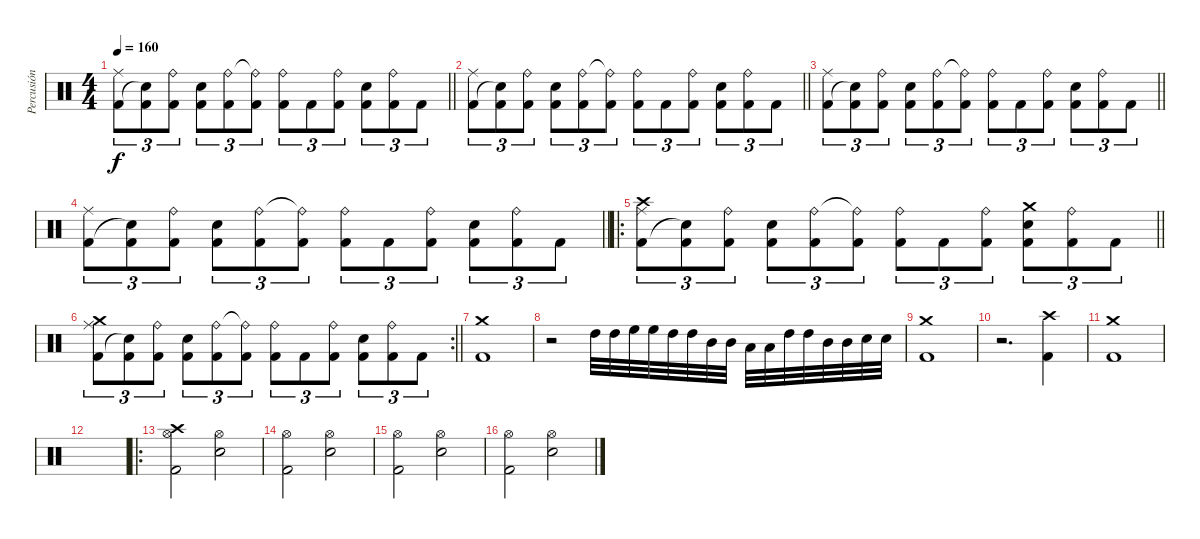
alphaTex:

\track ("Percusión" "Percusión") {instrument percussion}
\staff {score}
\articulation defaults
\ts (4 4)
\tempo 160
\clef neutral
\barLineRight lightlight
\ks c
("Ride (middle)" "Kick (hit) 2").8{tu (3 2) dy f} ("Kick (hit) 2" "Snare (hit)"{t}).8{tu (3 2)} ("Ride (bell)" "Kick (hit) 2").8{tu (3 2)} ("Snare (hit) 2" "Kick (hit) 2").8{tu (3 2)} ("Ride (bell)" "Kick (hit) 2").8{tu (3 2)} ("Ride (bell)"{t} "Kick (hit) 2").8{tu (3 2)} ("Kick (hit) 2" "Ride (bell)").8{tu (3 2)} "Kick (hit) 2".8{tu (3 2)} ("Ride (bell)" "Kick (hit) 2").8{tu (3 2)} ("Kick (hit) 2" "Snare (hit) 2").8{tu (3 2)} ("Kick (hit) 2" "Ride (bell)").8{tu (3 2)} "Kick (hit) 2".8{tu (3 2)} |
\barLineRight lightlight
("Ride (middle)" "Kick (hit) 2").8{tu (3 2)} ("Kick (hit) 2" "Snare (hit)"{t}).8{tu (3 2)} ("Ride (bell)" "Kick (hit) 2").8{tu (3 2)} ("Snare (hit) 2" "Kick (hit) 2").8{tu (3 2)} ("Ride (bell)" "Kick (hit) 2").8{tu (3 2)} ("Ride (bell)"{t} "Kick (hit) 2").8{tu (3 2)} ("Kick (hit) 2" "Ride (bell)").8{tu (3 2)} "Kick (hit) 2".8{tu (3 2)} ("Ride (bell)" "Kick (hit) 2").8{tu (3 2)} ("Kick (hit) 2" "Snare (hit) 2").8{tu (3 2)} ("Kick (hit) 2" "Ride (bell)").8{tu (3 2)} "Kick (hit) 2".8{tu (3 2)} |
\barLineRight lightlight
("Ride (middle)" "Kick (hit) 2").8{tu (3 2)} ("Kick (hit) 2" "Snare (hit)"{t}).8{tu (3 2)} ("Ride (bell)" "Kick (hit) 2").8{tu (3 2)} ("Snare (hit) 2" "Kick (hit) 2").8{tu (3 2)} ("Ride (bell)" "Kick (hit) 2").8{tu (3 2)} ("Ride (bell)"{t} "Kick (hit) 2").8{tu (3 2)} ("Kick (hit) 2" "Ride (bell)").8{tu (3 2)} "Kick (hit) 2".8{tu (3 2)} ("Ride (bell)" "Kick (hit) 2").8{tu (3 2)} ("Kick (hit) 2" "Snare (hit) 2").8{tu (3 2)} ("Kick (hit) 2" "Ride (bell)").8{tu (3 2)} "Kick (hit) 2".8{tu (3 2)} |
\barLineRight lightlight
("Ride (middle)" "Kick (hit) 2").8{tu (3 2)} ("Kick (hit) 2" "Snare (hit)"{t}).8{tu (3 2)} ("Ride (bell)" "Kick (hit) 2").8{tu (3 2)} ("Snare (hit) 2" "Kick (hit) 2").8{tu (3 2)} ("Ride (bell)" "Kick (hit) 2").8{tu (3 2)} ("Ride (bell)"{t} "Kick (hit) 2").8{tu (3 2)} ("Kick (hit) 2" "Ride (bell)").8{tu (3 2)} "Kick (hit) 2".8{tu (3 2)} ("Ride (bell)" "Kick (hit) 2").8{tu (3 2)} ("Kick (hit) 2" "Snare (hit) 2").8{tu (3 2)} ("Kick (hit) 2" "Ride (bell)").8{tu (3 2)} "Kick (hit) 2".8{tu (3 2)} |
\ro
\barLineRight lightlight
("Ride (middle)" "Kick (hit) 2" "Crash high (hit)").8{tu (3 2)} ("Kick (hit) 2" "Snare (hit)"{t}).8{tu (3 2)} ("Ride (bell)" "Kick (hit) 2").8{tu (3 2)} ("Snare (hit) 2" "Kick (hit) 2").8{tu (3 2)} ("Ride (bell)" "Kick (hit) 2").8{tu (3 2)} ("Ride (bell)"{t} "Kick (hit) 2").8{tu (3 2)} ("Kick (hit) 2" "Ride (bell)").8{tu (3 2)} "Kick (hit) 2".8{tu (3 2)} ("Ride (bell)" "Kick (hit) 2").8{tu (3 2)} ("Crash medium (hit)" "Kick (hit) 2" "Snare (hit) 2").8{tu (3 2)} ("Kick (hit) 2" "Ride (bell)").8{tu (3 2)} "Kick (hit) 2".8{tu (3 2)} |
\rc 2
\barLineRight lightlight
("Ride (middle)" "Kick (hit) 2" "Crash medium (hit)").8{tu (3 2)} ("Kick (hit) 2" "Snare (hit)"{t}).8{tu (3 2)} ("Ride (bell)" "Kick (hit) 2").8{tu (3 2)} ("Snare (hit) 2" "Kick (hit) 2").8{tu (3 2)} ("Ride (bell)" "Kick (hit) 2").8{tu (3 2)} ("Ride (bell)"{t} "Kick (hit) 2").8{tu (3 2)} ("Kick (hit) 2" "Ride (bell)").8{tu (3 2)} "Kick (hit) 2".8{tu (3 2)} ("Ride (bell)" "Kick (hit) 2").8{tu (3 2)} ("Kick (hit) 2" "Snare (hit) 2").8{tu (3 2)} ("Kick (hit) 2" "Ride (bell)").8{tu (3 2)} "Kick (hit) 2".8{tu (3 2)} |
("Crash medium (hit)" "Kick (hit) 2").1 |
r.2 "High Tom (hit)".32 "High Tom (hit)".32 "High Floor Tom (hit)".32 "High Floor Tom (hit)".32 "High Tom (hit)".32 "High Tom (hit)".32 "Mid Tom (hit)".32 "Mid Tom (hit)".32 "Low Tom (hit)".32 "Low Tom (hit)".32 "High Tom (hit)".32 "High Tom (hit)".32 "Mid Tom (hit)".32 "Mid Tom (hit)".32 "Snare (hit) 2".32 "Snare (hit) 2".32 |
("Crash medium (hit)" "Kick (hit) 2").1 |
r.2{d} ("Kick (hit) 2" "Crash high (hit)").4 |
("Crash medium (hit)" "Kick (hit) 2").1 |
|
\ro
("Hi-Hat (open)" "Kick (hit) 2" "Crash high (hit)").2 ("Snare (hit) 2" "Hi-Hat (open)").2 |
("Hi-Hat (open)" "Kick (hit) 2").2 ("Snare (hit) 2" "Hi-Hat (open)").2 |
("Hi-Hat (open)" "Kick (hit) 2").2 ("Snare (hit) 2" "Hi-Hat (open)").2 |
("Hi-Hat (open)" "Kick (hit) 2").2 ("Snare (hit) 2" "Hi-Hat (open)").2
